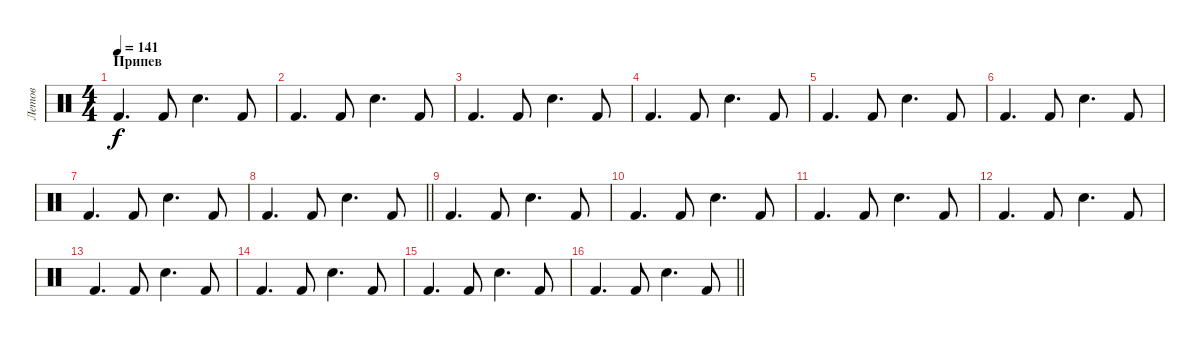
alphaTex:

\track ("Летов" "Летов") {instrument percussion}
\staff {score}
\articulation defaults
\ts (4 4)
\section ("" "Припев")
\tempo 141
\clef neutral
\ks c "Kick (hit) 2".4{d dy f} "Kick (hit) 2".8 "Electric Snare (hit)".4{d} "Kick (hit) 2".8
|
"Kick (hit) 2".4{d} "Kick (hit) 2".8 "Electric Snare (hit)".4{d} "Kick (hit) 2".8 |
"Kick (hit) 2".4{d} "Kick (hit) 2".8 "Electric Snare (hit)".4{d} "Kick (hit) 2".8 |
"Kick (hit) 2".4{d} "Kick (hit) 2".8 "Electric Snare (hit)".4{d} "Kick (hit) 2".8 |
"Kick (hit) 2".4{d} "Kick (hit) 2".8 "Electric Snare (hit)".4{d} "Kick (hit) 2".8 |
"Kick (hit) 2".4{d} "Kick (hit) 2".8 "Electric Snare (hit)".4{d} "Kick (hit) 2".8 |
"Kick (hit) 2".4{d} "Kick (hit) 2".8 "Electric Snare (hit)".4{d} "Kick (hit) 2".8 |
\barLineRight lightlight "Kick (hit) 2".4{d} "Kick (hit) 2".8 "Electric Snare (hit)".4{d} "Kick (hit) 2".8
|
"Kick (hit) 2".4{d} "Kick (hit) 2".8 "Electric Snare (hit)".4{d} "Kick (hit) 2".8 |
"Kick (hit) 2".4{d} "Kick (hit) 2".8 "Electric Snare (hit)".4{d} "Kick (hit) 2".8 |
"Kick (hit) 2".4{d} "Kick (hit) 2".8 "Electric Snare (hit)".4{d} "Kick (hit) 2".8 |
"Kick (hit) 2".4{d} "Kick (hit) 2".8 "Electric Snare (hit)".4{d} "Kick (hit) 2".8 |
"Kick (hit) 2".4{d} "Kick (hit) 2".8 "Electric Snare (hit)".4{d} "Kick (hit) 2".8 |
"Kick (hit) 2".4{d} "Kick (hit) 2".8 "Electric Snare (hit)".4{d} "Kick (hit) 2".8 |
"Kick (hit) 2".4{d} "Kick (hit) 2".8 "Electric Snare (hit)".4{d} "Kick (hit) 2".8 |
\barLineRight lightlight "Kick (hit) 2".4{d} "Kick (hit) 2".8 "Electric Snare (hit)".4{d} "Kick (hit) 2".8
